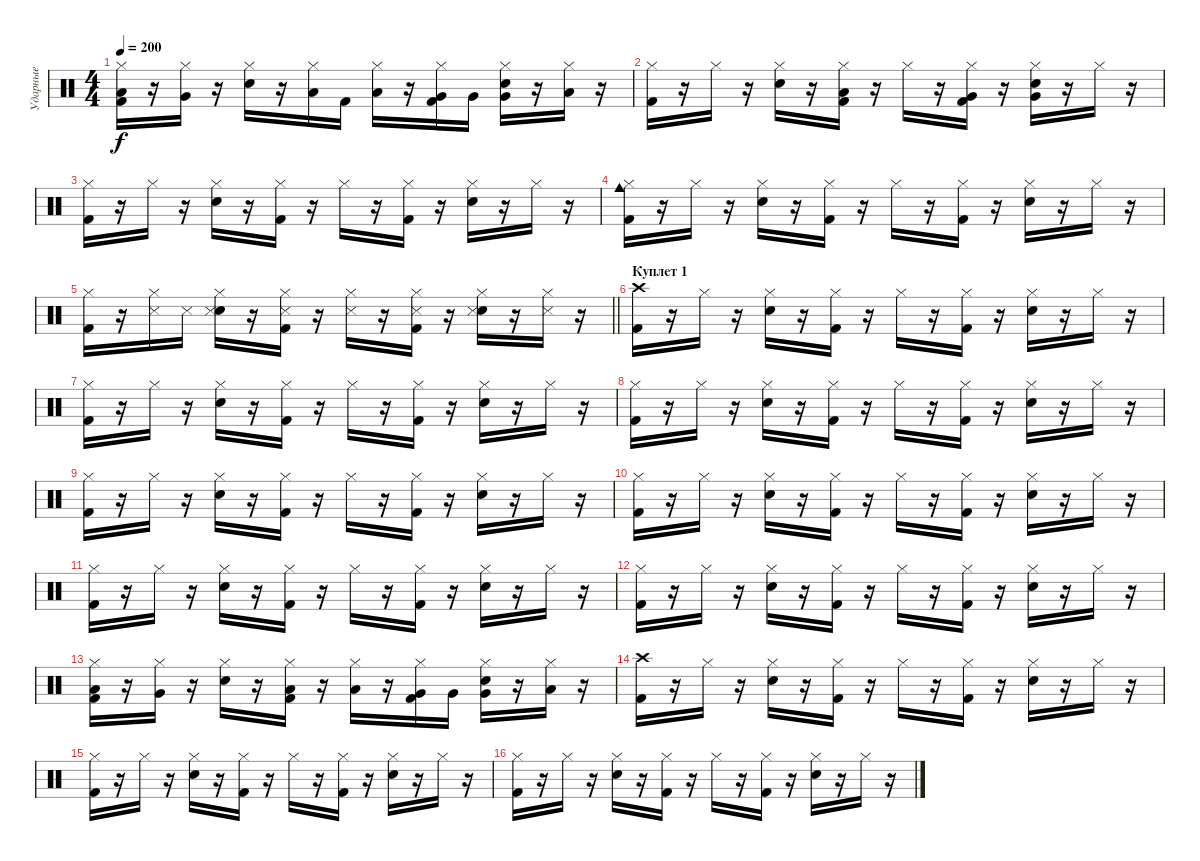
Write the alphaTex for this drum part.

\track ("Ударные" "Ударные") {instrument percussion}
\staff {score}
\articulation defaults
\ts (4 4)
\tempo 200
\clef neutral
\ks c
("Kick (hit) 2" "Low Floor Tom (hit)" "Hi-Hat (closed)").16{dy f} r.16 ("Very Low Tom (hit)" "Hi-Hat (closed)").16 r.16 ("Snare (hit) 2" "Hi-Hat (closed)").16 r.16 ("Low Floor Tom (hit)" "Hi-Hat (closed)").16 "Kick (hit) 2".16 ("Low Floor Tom (hit)" "Hi-Hat (closed)").16 r.16 ("Kick (hit) 2" "Very Low Tom (hit)" "Hi-Hat (closed)").16 "Very Low Tom (hit)".16 ("Snare (hit) 2" "Very Low Tom (hit)" "Hi-Hat (closed)").16 r.16 ("Low Tom (hit)" "Hi-Hat (closed)").16 r.16 |
("Kick (hit) 2" "Hi-Hat (closed)").16 r.16 "Hi-Hat (closed)".16 r.16 ("Snare (hit) 2" "Hi-Hat (closed)").16 r.16 ("Kick (hit) 2" "Low Floor Tom (hit)" "Hi-Hat (closed)").16 r.16 "Hi-Hat (closed)".16 r.16 ("Kick (hit) 2" "Very Low Tom (hit)" "Hi-Hat (closed)").16 r.16 ("Snare (hit) 2" "Very Low Tom (hit)" "Hi-Hat (closed)").16 r.16 "Hi-Hat (closed)".16 r.16 |
("Kick (hit) 2" "Hi-Hat (closed)").16 r.16 "Hi-Hat (closed)".16 r.16 ("Snare (hit) 2" "Hi-Hat (closed)").16 r.16 ("Kick (hit) 2" "Hi-Hat (closed)").16 r.16 "Hi-Hat (closed)".16 r.16 ("Kick (hit) 2" "Hi-Hat (closed)").16 r.16 ("Snare (hit) 2" "Hi-Hat (closed)").16 r.16 "Hi-Hat (closed)".16 r.16 |
("Kick (hit) 2" "Cowbell medium (hit)" "Cowbell medium (hit)" "Hi-Hat (closed)").16 r.16 "Hi-Hat (closed)".16 r.16 ("Snare (hit) 2" "Hi-Hat (closed)").16 r.16 ("Kick (hit) 2" "Hi-Hat (closed)").16 r.16 "Hi-Hat (closed)".16 r.16 ("Kick (hit) 2" "Hi-Hat (closed)").16 r.16 ("Snare (hit) 2" "Hi-Hat (closed)").16 r.16 "Hi-Hat (closed)".16 r.16 |
\barLineRight lightlight
("Kick (hit) 2" "Hi-Hat (closed)").16 r.16 ("Snare (side stick) 3" "Hi-Hat (closed)").16 "Snare (side stick) 3".16 ("Snare (hit) 2" "Snare (side stick) 3" "Hi-Hat (closed)").16 r.16 ("Kick (hit) 2" "Snare (side stick) 3" "Hi-Hat (closed)").16 r.16 ("Snare (side stick) 3" "Hi-Hat (closed)").16 r.16 ("Kick (hit) 2" "Snare (side stick) 3" "Hi-Hat (closed)").16 r.16 ("Snare (hit) 2" "Snare (side stick) 3" "Hi-Hat (closed)").16 r.16 ("Snare (side stick) 3" "Hi-Hat (closed)").16 r.16 |
\section ("" "Куплет 1")
("Kick (hit) 2" "Crash high (hit)").16 r.16 "Hi-Hat (closed)".16 r.16 ("Snare (hit) 2" "Hi-Hat (closed)").16 r.16 ("Kick (hit) 2" "Hi-Hat (closed)").16 r.16 "Hi-Hat (closed)".16 r.16 ("Kick (hit) 2" "Hi-Hat (closed)").16 r.16 ("Snare (hit) 2" "Hi-Hat (closed)").16 r.16 "Hi-Hat (closed)".16 r.16 |
("Kick (hit) 2" "Hi-Hat (closed)").16 r.16 "Hi-Hat (closed)".16 r.16 ("Snare (hit) 2" "Hi-Hat (closed)").16 r.16 ("Kick (hit) 2" "Hi-Hat (closed)").16 r.16 "Hi-Hat (closed)".16 r.16 ("Kick (hit) 2" "Hi-Hat (closed)").16 r.16 ("Snare (hit) 2" "Hi-Hat (closed)").16 r.16 "Hi-Hat (closed)".16 r.16 |
("Kick (hit) 2" "Hi-Hat (closed)").16 r.16 "Hi-Hat (closed)".16 r.16 ("Snare (hit) 2" "Hi-Hat (closed)").16 r.16 ("Kick (hit) 2" "Hi-Hat (closed)").16 r.16 "Hi-Hat (closed)".16 r.16 ("Kick (hit) 2" "Hi-Hat (closed)").16 r.16 ("Snare (hit) 2" "Hi-Hat (closed)").16 r.16 "Hi-Hat (closed)".16 r.16 |
("Kick (hit) 2" "Hi-Hat (closed)").16 r.16 "Hi-Hat (closed)".16 r.16 ("Snare (hit) 2" "Hi-Hat (closed)").16 r.16 ("Kick (hit) 2" "Hi-Hat (closed)").16 r.16 "Hi-Hat (closed)".16 r.16 ("Kick (hit) 2" "Hi-Hat (closed)").16 r.16 ("Snare (hit) 2" "Hi-Hat (closed)").16 r.16 "Hi-Hat (closed)".16 r.16 |
("Kick (hit) 2" "Hi-Hat (closed)").16 r.16 "Hi-Hat (closed)".16 r.16 ("Snare (hit) 2" "Hi-Hat (closed)").16 r.16 ("Kick (hit) 2" "Hi-Hat (closed)").16 r.16 "Hi-Hat (closed)".16 r.16 ("Kick (hit) 2" "Hi-Hat (closed)").16 r.16 ("Snare (hit) 2" "Hi-Hat (closed)").16 r.16 "Hi-Hat (closed)".16 r.16 |
("Kick (hit) 2" "Hi-Hat (closed)").16 r.16 "Hi-Hat (closed)".16 r.16 ("Snare (hit) 2" "Hi-Hat (closed)").16 r.16 ("Kick (hit) 2" "Hi-Hat (closed)").16 r.16 "Hi-Hat (closed)".16 r.16 ("Kick (hit) 2" "Hi-Hat (closed)").16 r.16 ("Snare (hit) 2" "Hi-Hat (closed)").16 r.16 "Hi-Hat (closed)".16 r.16 |
("Kick (hit) 2" "Hi-Hat (closed)").16 r.16 "Hi-Hat (closed)".16 r.16 ("Snare (hit) 2" "Hi-Hat (closed)").16 r.16 ("Kick (hit) 2" "Hi-Hat (closed)").16 r.16 "Hi-Hat (closed)".16 r.16 ("Kick (hit) 2" "Hi-Hat (closed)").16 r.16 ("Snare (hit) 2" "Hi-Hat (closed)").16 r.16 "Hi-Hat (closed)".16 r.16 |
("Kick (hit) 2" "Low Floor Tom (hit)" "Hi-Hat (closed)").16 r.16 ("Very Low Tom (hit)" "Hi-Hat (closed)").16 r.16 ("Snare (hit) 2" "Hi-Hat (closed)").16 r.16 ("Kick (hit) 2" "Low Floor Tom (hit)" "Hi-Hat (closed)").16 r.16 ("Low Floor Tom (hit)" "Hi-Hat (closed)").16 r.16 ("Kick (hit) 2" "Very Low Tom (hit)" "Hi-Hat (closed)").16 "Very Low Tom (hit)".16 ("Snare (hit) 2" "Very Low Tom (hit)" "Hi-Hat (closed)").16 r.16 ("Low Tom (hit)" "Hi-Hat (closed)").16 r.16 |
("Kick (hit) 2" "Crash high (hit)").16 r.16 "Hi-Hat (closed)".16 r.16 ("Snare (hit) 2" "Hi-Hat (closed)").16 r.16 ("Kick (hit) 2" "Hi-Hat (closed)").16 r.16 "Hi-Hat (closed)".16 r.16 ("Kick (hit) 2" "Hi-Hat (closed)").16 r.16 ("Snare (hit) 2" "Hi-Hat (closed)").16 r.16 "Hi-Hat (closed)".16 r.16 |
("Kick (hit) 2" "Hi-Hat (closed)").16 r.16 "Hi-Hat (closed)".16 r.16 ("Snare (hit) 2" "Hi-Hat (closed)").16 r.16 ("Kick (hit) 2" "Hi-Hat (closed)").16 r.16 "Hi-Hat (closed)".16 r.16 ("Kick (hit) 2" "Hi-Hat (closed)").16 r.16 ("Snare (hit) 2" "Hi-Hat (closed)").16 r.16 "Hi-Hat (closed)".16 r.16 |
("Kick (hit) 2" "Hi-Hat (closed)").16 r.16 "Hi-Hat (closed)".16 r.16 ("Snare (hit) 2" "Hi-Hat (closed)").16 r.16 ("Kick (hit) 2" "Hi-Hat (closed)").16 r.16 "Hi-Hat (closed)".16 r.16 ("Kick (hit) 2" "Hi-Hat (closed)").16 r.16 ("Snare (hit) 2" "Hi-Hat (closed)").16 r.16 "Hi-Hat (closed)".16 r.16
